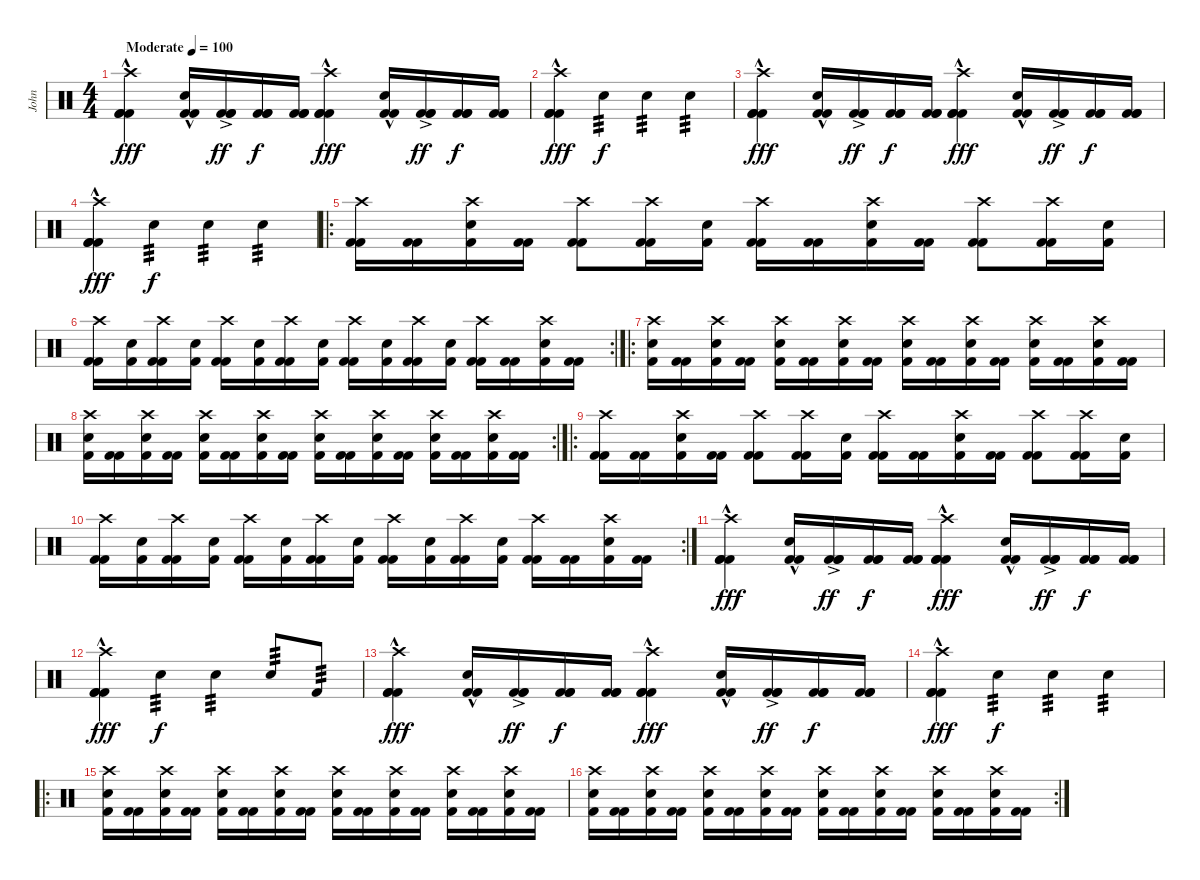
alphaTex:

\track ("John" "John") {instrument percussion}
\staff {score}
\articulation defaults
\ts (4 4)
\tempo (100 "Moderate")
\clef neutral
\ks c
("Crash high (hit)"{hac} "Kick (hit) 2"{hac} "Kick (hit) 2"{hac} "Kick (hit) 2"{hac}).4{dy fff} ("Electric Snare (hit)"{hac} "Kick (hit) 2"{hac} "Kick (hit) 2"{hac}).16 ("Kick (hit) 2"{ac} "Kick (hit) 2"{ac} "Kick (hit) 2"{ac}).16{dy ff} ("Kick (hit) 2" "Kick (hit) 2" "Kick (hit) 2").16{dy f} ("Kick (hit) 2" "Kick (hit) 2" "Kick (hit) 2").16 ("Crash high (hit)"{hac} "Kick (hit) 2"{hac} "Kick (hit) 2"{hac} "Kick (hit) 2"{hac}).4{dy fff} ("Electric Snare (hit)"{hac} "Kick (hit) 2"{hac} "Kick (hit) 2"{hac}).16 ("Kick (hit) 2"{ac} "Kick (hit) 2"{ac} "Kick (hit) 2"{ac}).16{dy ff} ("Kick (hit) 2" "Kick (hit) 2" "Kick (hit) 2").16{dy f} ("Kick (hit) 2" "Kick (hit) 2" "Kick (hit) 2").16 |
("Crash high (hit)"{hac} "Kick (hit) 2"{hac} "Kick (hit) 2"{hac} "Kick (hit) 2"{hac}).4{dy fff} "Electric Snare (hit)".4{tp 3 dy f volume 7} "Electric Snare (hit)".4{tp 3 volume 13} "Electric Snare (hit)".4{tp 3} |
("Crash high (hit)"{hac} "Kick (hit) 2"{hac} "Kick (hit) 2"{hac} "Kick (hit) 2"{hac}).4{dy fff} ("Electric Snare (hit)"{hac} "Kick (hit) 2"{hac} "Kick (hit) 2"{hac}).16 ("Kick (hit) 2"{ac} "Kick (hit) 2"{ac} "Kick (hit) 2"{ac}).16{dy ff} ("Kick (hit) 2" "Kick (hit) 2" "Kick (hit) 2").16{dy f} ("Kick (hit) 2" "Kick (hit) 2" "Kick (hit) 2").16 ("Crash high (hit)"{hac} "Kick (hit) 2"{hac} "Kick (hit) 2"{hac} "Kick (hit) 2"{hac}).4{dy fff} ("Electric Snare (hit)"{hac} "Kick (hit) 2"{hac} "Kick (hit) 2"{hac}).16 ("Kick (hit) 2"{ac} "Kick (hit) 2"{ac} "Kick (hit) 2"{ac}).16{dy ff} ("Kick (hit) 2" "Kick (hit) 2" "Kick (hit) 2").16{dy f} ("Kick (hit) 2" "Kick (hit) 2" "Kick (hit) 2").16 |
("Crash high (hit)"{hac} "Kick (hit) 2"{hac} "Kick (hit) 2"{hac} "Kick (hit) 2"{hac}).4{dy fff} "Electric Snare (hit)".4{tp 3 dy f volume 7} "Electric Snare (hit)".4{tp 3 volume 13} "Electric Snare (hit)".4{tp 3} |
\ro
("Crash high (hit)" "Kick (hit) 2" "Kick (hit) 2").16 ("Kick (hit) 2" "Kick (hit) 2").16 ("Crash high (hit)" "Kick (hit) 2" "Electric Snare (hit)").16 ("Kick (hit) 2" "Kick (hit) 2").16 ("Crash high (hit)" "Kick (hit) 2" "Kick (hit) 2").8 ("Crash high (hit)" "Kick (hit) 2" "Kick (hit) 2").16 ("Kick (hit) 2" "Electric Snare (hit)").16 ("Crash high (hit)" "Kick (hit) 2" "Kick (hit) 2").16 ("Kick (hit) 2" "Kick (hit) 2").16 ("Crash high (hit)" "Kick (hit) 2" "Electric Snare (hit)").16 ("Kick (hit) 2" "Kick (hit) 2").16 ("Crash high (hit)" "Kick (hit) 2" "Kick (hit) 2").8 ("Crash high (hit)" "Kick (hit) 2" "Kick (hit) 2").16 ("Kick (hit) 2" "Electric Snare (hit)").16 |
\rc 2
("Crash high (hit)" "Kick (hit) 2" "Kick (hit) 2").16 ("Kick (hit) 2" "Electric Snare (hit)").16 ("Crash high (hit)" "Kick (hit) 2" "Kick (hit) 2").16 ("Kick (hit) 2" "Electric Snare (hit)").16 ("Crash high (hit)" "Kick (hit) 2" "Kick (hit) 2").16 ("Kick (hit) 2" "Electric Snare (hit)").16 ("Crash high (hit)" "Kick (hit) 2" "Kick (hit) 2").16 ("Kick (hit) 2" "Electric Snare (hit)").16 ("Crash high (hit)" "Kick (hit) 2" "Kick (hit) 2").16 ("Kick (hit) 2" "Electric Snare (hit)").16 ("Crash high (hit)" "Kick (hit) 2" "Kick (hit) 2").16 ("Kick (hit) 2" "Electric Snare (hit)").16 ("Crash high (hit)" "Kick (hit) 2" "Kick (hit) 2").16 ("Kick (hit) 2" "Kick (hit) 2").16 ("Crash high (hit)" "Kick (hit) 2" "Electric Snare (hit)").16 ("Kick (hit) 2" "Kick (hit) 2").16 |
\ro
("Crash high (hit)" "Electric Snare (hit)" "Kick (hit) 2").16 ("Kick (hit) 2" "Kick (hit) 2").16 ("Crash high (hit)" "Electric Snare (hit)" "Kick (hit) 2").16 ("Kick (hit) 2" "Kick (hit) 2").16 ("Crash high (hit)" "Electric Snare (hit)" "Kick (hit) 2").16 ("Kick (hit) 2" "Kick (hit) 2").16 ("Crash high (hit)" "Electric Snare (hit)" "Kick (hit) 2").16 ("Kick (hit) 2" "Kick (hit) 2").16 ("Crash high (hit)" "Electric Snare (hit)" "Kick (hit) 2").16 ("Kick (hit) 2" "Kick (hit) 2").16 ("Crash high (hit)" "Electric Snare (hit)" "Kick (hit) 2").16 ("Kick (hit) 2" "Kick (hit) 2").16 ("Crash high (hit)" "Electric Snare (hit)" "Kick (hit) 2").16 ("Kick (hit) 2" "Kick (hit) 2").16 ("Crash high (hit)" "Electric Snare (hit)" "Kick (hit) 2").16 ("Kick (hit) 2" "Kick (hit) 2").16 |
\rc 2
("Crash high (hit)" "Electric Snare (hit)" "Kick (hit) 2").16 ("Kick (hit) 2" "Kick (hit) 2").16 ("Crash high (hit)" "Electric Snare (hit)" "Kick (hit) 2").16 ("Kick (hit) 2" "Kick (hit) 2").16 ("Crash high (hit)" "Electric Snare (hit)" "Kick (hit) 2").16 ("Kick (hit) 2" "Kick (hit) 2").16 ("Crash high (hit)" "Electric Snare (hit)" "Kick (hit) 2").16 ("Kick (hit) 2" "Kick (hit) 2").16 ("Crash high (hit)" "Electric Snare (hit)" "Kick (hit) 2").16 ("Kick (hit) 2" "Kick (hit) 2").16 ("Crash high (hit)" "Electric Snare (hit)" "Kick (hit) 2").16 ("Kick (hit) 2" "Kick (hit) 2").16 ("Crash high (hit)" "Electric Snare (hit)" "Kick (hit) 2").16 ("Kick (hit) 2" "Kick (hit) 2").16 ("Crash high (hit)" "Electric Snare (hit)" "Kick (hit) 2").16 ("Kick (hit) 2" "Kick (hit) 2").16 |
\ro
("Crash high (hit)" "Kick (hit) 2" "Kick (hit) 2").16 ("Kick (hit) 2" "Kick (hit) 2").16 ("Crash high (hit)" "Kick (hit) 2" "Electric Snare (hit)").16 ("Kick (hit) 2" "Kick (hit) 2").16 ("Crash high (hit)" "Kick (hit) 2" "Kick (hit) 2").8 ("Crash high (hit)" "Kick (hit) 2" "Kick (hit) 2").16 ("Kick (hit) 2" "Electric Snare (hit)").16 ("Crash high (hit)" "Kick (hit) 2" "Kick (hit) 2").16 ("Kick (hit) 2" "Kick (hit) 2").16 ("Crash high (hit)" "Kick (hit) 2" "Electric Snare (hit)").16 ("Kick (hit) 2" "Kick (hit) 2").16 ("Crash high (hit)" "Kick (hit) 2" "Kick (hit) 2").8 ("Crash high (hit)" "Kick (hit) 2" "Kick (hit) 2").16 ("Kick (hit) 2" "Electric Snare (hit)").16 |
\rc 2
("Crash high (hit)" "Kick (hit) 2" "Kick (hit) 2").16 ("Kick (hit) 2" "Electric Snare (hit)").16 ("Crash high (hit)" "Kick (hit) 2" "Kick (hit) 2").16 ("Kick (hit) 2" "Electric Snare (hit)").16 ("Crash high (hit)" "Kick (hit) 2" "Kick (hit) 2").16 ("Kick (hit) 2" "Electric Snare (hit)").16 ("Crash high (hit)" "Kick (hit) 2" "Kick (hit) 2").16 ("Kick (hit) 2" "Electric Snare (hit)").16 ("Crash high (hit)" "Kick (hit) 2" "Kick (hit) 2").16 ("Kick (hit) 2" "Electric Snare (hit)").16 ("Crash high (hit)" "Kick (hit) 2" "Kick (hit) 2").16 ("Kick (hit) 2" "Electric Snare (hit)").16 ("Crash high (hit)" "Kick (hit) 2" "Kick (hit) 2").16 ("Kick (hit) 2" "Kick (hit) 2").16 ("Crash high (hit)" "Kick (hit) 2" "Electric Snare (hit)").16 ("Kick (hit) 2" "Kick (hit) 2").16 |
("Crash high (hit)"{hac} "Kick (hit) 2"{hac} "Kick (hit) 2"{hac} "Kick (hit) 2"{hac}).4{dy fff} ("Electric Snare (hit)"{hac} "Kick (hit) 2"{hac} "Kick (hit) 2"{hac}).16 ("Kick (hit) 2"{ac} "Kick (hit) 2"{ac} "Kick (hit) 2"{ac}).16{dy ff} ("Kick (hit) 2" "Kick (hit) 2" "Kick (hit) 2").16{dy f} ("Kick (hit) 2" "Kick (hit) 2" "Kick (hit) 2").16 ("Crash high (hit)"{hac} "Kick (hit) 2"{hac} "Kick (hit) 2"{hac} "Kick (hit) 2"{hac}).4{dy fff} ("Electric Snare (hit)"{hac} "Kick (hit) 2"{hac} "Kick (hit) 2"{hac}).16 ("Kick (hit) 2"{ac} "Kick (hit) 2"{ac} "Kick (hit) 2"{ac}).16{dy ff} ("Kick (hit) 2" "Kick (hit) 2" "Kick (hit) 2").16{dy f} ("Kick (hit) 2" "Kick (hit) 2" "Kick (hit) 2").16 |
("Crash high (hit)"{hac} "Kick (hit) 2"{hac} "Kick (hit) 2"{hac} "Kick (hit) 2"{hac}).4{dy fff} "Electric Snare (hit)".4{tp 3 dy f} "Electric Snare (hit)".4{tp 3} "Electric Snare (hit)".8{tp 3} "Kick (hit) 2".8{tp 3} |
("Crash high (hit)"{hac} "Kick (hit) 2"{hac} "Kick (hit) 2"{hac} "Kick (hit) 2"{hac}).4{dy fff} ("Electric Snare (hit)"{hac} "Kick (hit) 2"{hac} "Kick (hit) 2"{hac}).16 ("Kick (hit) 2"{ac} "Kick (hit) 2"{ac} "Kick (hit) 2"{ac}).16{dy ff} ("Kick (hit) 2" "Kick (hit) 2" "Kick (hit) 2").16{dy f} ("Kick (hit) 2" "Kick (hit) 2" "Kick (hit) 2").16 ("Crash high (hit)"{hac} "Kick (hit) 2"{hac} "Kick (hit) 2"{hac} "Kick (hit) 2"{hac}).4{dy fff} ("Electric Snare (hit)"{hac} "Kick (hit) 2"{hac} "Kick (hit) 2"{hac}).16 ("Kick (hit) 2"{ac} "Kick (hit) 2"{ac} "Kick (hit) 2"{ac}).16{dy ff} ("Kick (hit) 2" "Kick (hit) 2" "Kick (hit) 2").16{dy f} ("Kick (hit) 2" "Kick (hit) 2" "Kick (hit) 2").16 |
("Crash high (hit)"{hac} "Kick (hit) 2"{hac} "Kick (hit) 2"{hac} "Kick (hit) 2"{hac}).4{dy fff} "Electric Snare (hit)".4{tp 3 dy f balance 16} "Electric Snare (hit)".4{tp 3 balance 8} "Electric Snare (hit)".4{tp 3 balance 8} |
\ro
("Crash high (hit)" "Electric Snare (hit)" "Kick (hit) 2").16 ("Kick (hit) 2" "Kick (hit) 2").16 ("Crash high (hit)" "Electric Snare (hit)" "Kick (hit) 2").16 ("Kick (hit) 2" "Kick (hit) 2").16 ("Crash high (hit)" "Electric Snare (hit)" "Kick (hit) 2").16 ("Kick (hit) 2" "Kick (hit) 2").16 ("Crash high (hit)" "Electric Snare (hit)" "Kick (hit) 2").16 ("Kick (hit) 2" "Kick (hit) 2").16 ("Crash high (hit)" "Electric Snare (hit)" "Kick (hit) 2").16 ("Kick (hit) 2" "Kick (hit) 2").16 ("Crash high (hit)" "Electric Snare (hit)" "Kick (hit) 2").16 ("Kick (hit) 2" "Kick (hit) 2").16 ("Crash high (hit)" "Electric Snare (hit)" "Kick (hit) 2").16 ("Kick (hit) 2" "Kick (hit) 2").16 ("Crash high (hit)" "Electric Snare (hit)" "Kick (hit) 2").16 ("Kick (hit) 2" "Kick (hit) 2").16 |
\rc 2
("Crash high (hit)" "Electric Snare (hit)" "Kick (hit) 2").16 ("Kick (hit) 2" "Kick (hit) 2").16 ("Crash high (hit)" "Electric Snare (hit)" "Kick (hit) 2").16 ("Kick (hit) 2" "Kick (hit) 2").16 ("Crash high (hit)" "Electric Snare (hit)" "Kick (hit) 2").16 ("Kick (hit) 2" "Kick (hit) 2").16 ("Crash high (hit)" "Electric Snare (hit)" "Kick (hit) 2").16 ("Kick (hit) 2" "Kick (hit) 2").16 ("Crash high (hit)" "Electric Snare (hit)" "Kick (hit) 2").16 ("Kick (hit) 2" "Kick (hit) 2").16 ("Crash high (hit)" "Electric Snare (hit)" "Kick (hit) 2").16 ("Kick (hit) 2" "Kick (hit) 2").16 ("Crash high (hit)" "Electric Snare (hit)" "Kick (hit) 2").16 ("Kick (hit) 2" "Kick (hit) 2").16 ("Crash high (hit)" "Electric Snare (hit)" "Kick (hit) 2").16 ("Kick (hit) 2" "Kick (hit) 2").16
